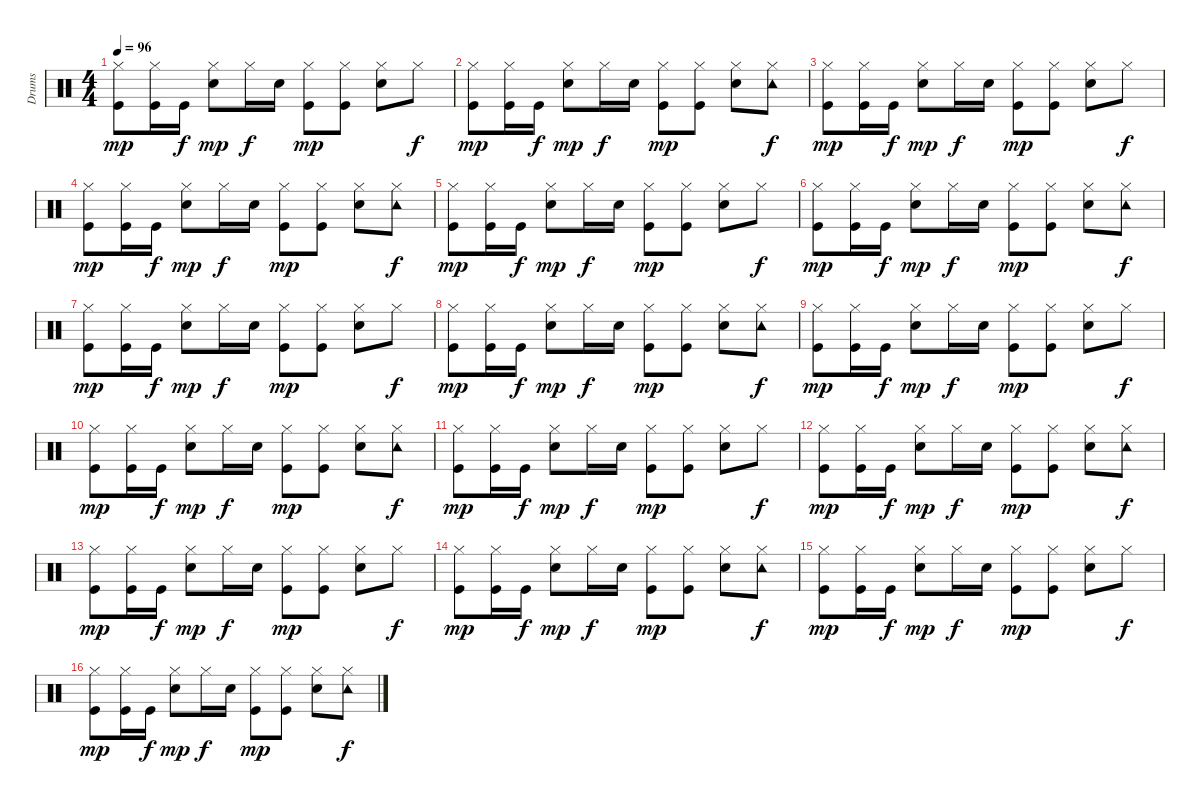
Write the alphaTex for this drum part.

\track ("Drums" "Drums") {instrument percussion}
\staff {score}
\articulation defaults
\ts (4 4)
\tempo 96
\clef neutral
\ks c
("Hi-Hat (closed)" "Kick (hit)").8{dy mp} ("Hi-Hat (closed)" "Kick (hit)").16 "Kick (hit)".16{dy f} ("Hi-Hat (closed)" "Electric Snare (hit)").8{dy mp} "Hi-Hat (closed)".16{dy f} "Electric Snare (hit)".16 ("Hi-Hat (closed)" "Kick (hit)").8{dy mp} ("Hi-Hat (closed)" "Kick (hit)").8 ("Hi-Hat (closed)" "Electric Snare (hit)").8 "Hi-Hat (closed)".8{dy f} |
("Hi-Hat (closed)" "Kick (hit)").8{dy mp} ("Hi-Hat (closed)" "Kick (hit)").16 "Kick (hit)".16{dy f} ("Hi-Hat (closed)" "Electric Snare (hit)").8{dy mp} "Hi-Hat (closed)".16{dy f} "Electric Snare (hit)".16 ("Hi-Hat (closed)" "Kick (hit)").8{dy mp} ("Hi-Hat (closed)" "Kick (hit)").8 ("Hi-Hat (closed)" "Electric Snare (hit)").8 ("Tambourine (hit)" "Hi-Hat (closed)").8{dy f} |
("Hi-Hat (closed)" "Kick (hit)").8{dy mp} ("Hi-Hat (closed)" "Kick (hit)").16 "Kick (hit)".16{dy f} ("Hi-Hat (closed)" "Electric Snare (hit)").8{dy mp} "Hi-Hat (closed)".16{dy f} "Electric Snare (hit)".16 ("Hi-Hat (closed)" "Kick (hit)").8{dy mp} ("Hi-Hat (closed)" "Kick (hit)").8 ("Hi-Hat (closed)" "Electric Snare (hit)").8 "Hi-Hat (closed)".8{dy f} |
("Hi-Hat (closed)" "Kick (hit)").8{dy mp} ("Hi-Hat (closed)" "Kick (hit)").16 "Kick (hit)".16{dy f} ("Hi-Hat (closed)" "Electric Snare (hit)").8{dy mp} "Hi-Hat (closed)".16{dy f} "Electric Snare (hit)".16 ("Hi-Hat (closed)" "Kick (hit)").8{dy mp} ("Hi-Hat (closed)" "Kick (hit)").8 ("Hi-Hat (closed)" "Electric Snare (hit)").8 ("Tambourine (hit)" "Hi-Hat (closed)").8{dy f} |
("Hi-Hat (closed)" "Kick (hit)").8{dy mp} ("Hi-Hat (closed)" "Kick (hit)").16 "Kick (hit)".16{dy f} ("Hi-Hat (closed)" "Electric Snare (hit)").8{dy mp} "Hi-Hat (closed)".16{dy f} "Electric Snare (hit)".16 ("Hi-Hat (closed)" "Kick (hit)").8{dy mp} ("Hi-Hat (closed)" "Kick (hit)").8 ("Hi-Hat (closed)" "Electric Snare (hit)").8 "Hi-Hat (closed)".8{dy f} |
("Hi-Hat (closed)" "Kick (hit)").8{dy mp} ("Hi-Hat (closed)" "Kick (hit)").16 "Kick (hit)".16{dy f} ("Hi-Hat (closed)" "Electric Snare (hit)").8{dy mp} "Hi-Hat (closed)".16{dy f} "Electric Snare (hit)".16 ("Hi-Hat (closed)" "Kick (hit)").8{dy mp} ("Hi-Hat (closed)" "Kick (hit)").8 ("Hi-Hat (closed)" "Electric Snare (hit)").8 ("Tambourine (hit)" "Hi-Hat (closed)").8{dy f} |
("Hi-Hat (closed)" "Kick (hit)").8{dy mp} ("Hi-Hat (closed)" "Kick (hit)").16 "Kick (hit)".16{dy f} ("Hi-Hat (closed)" "Electric Snare (hit)").8{dy mp} "Hi-Hat (closed)".16{dy f} "Electric Snare (hit)".16 ("Hi-Hat (closed)" "Kick (hit)").8{dy mp} ("Hi-Hat (closed)" "Kick (hit)").8 ("Hi-Hat (closed)" "Electric Snare (hit)").8 "Hi-Hat (closed)".8{dy f} |
("Hi-Hat (closed)" "Kick (hit)").8{dy mp} ("Hi-Hat (closed)" "Kick (hit)").16 "Kick (hit)".16{dy f} ("Hi-Hat (closed)" "Electric Snare (hit)").8{dy mp} "Hi-Hat (closed)".16{dy f} "Electric Snare (hit)".16 ("Hi-Hat (closed)" "Kick (hit)").8{dy mp} ("Hi-Hat (closed)" "Kick (hit)").8 ("Hi-Hat (closed)" "Electric Snare (hit)").8 ("Tambourine (hit)" "Hi-Hat (closed)").8{dy f} |
("Hi-Hat (closed)" "Kick (hit)").8{dy mp} ("Hi-Hat (closed)" "Kick (hit)").16 "Kick (hit)".16{dy f} ("Hi-Hat (closed)" "Electric Snare (hit)").8{dy mp} "Hi-Hat (closed)".16{dy f} "Electric Snare (hit)".16 ("Hi-Hat (closed)" "Kick (hit)").8{dy mp} ("Hi-Hat (closed)" "Kick (hit)").8 ("Hi-Hat (closed)" "Electric Snare (hit)").8 "Hi-Hat (closed)".8{dy f} |
("Hi-Hat (closed)" "Kick (hit)").8{dy mp} ("Hi-Hat (closed)" "Kick (hit)").16 "Kick (hit)".16{dy f} ("Hi-Hat (closed)" "Electric Snare (hit)").8{dy mp} "Hi-Hat (closed)".16{dy f} "Electric Snare (hit)".16 ("Hi-Hat (closed)" "Kick (hit)").8{dy mp} ("Hi-Hat (closed)" "Kick (hit)").8 ("Hi-Hat (closed)" "Electric Snare (hit)").8 ("Tambourine (hit)" "Hi-Hat (closed)").8{dy f} |
("Hi-Hat (closed)" "Kick (hit)").8{dy mp} ("Hi-Hat (closed)" "Kick (hit)").16 "Kick (hit)".16{dy f} ("Hi-Hat (closed)" "Electric Snare (hit)").8{dy mp} "Hi-Hat (closed)".16{dy f} "Electric Snare (hit)".16 ("Hi-Hat (closed)" "Kick (hit)").8{dy mp} ("Hi-Hat (closed)" "Kick (hit)").8 ("Hi-Hat (closed)" "Electric Snare (hit)").8 "Hi-Hat (closed)".8{dy f} |
("Hi-Hat (closed)" "Kick (hit)").8{dy mp} ("Hi-Hat (closed)" "Kick (hit)").16 "Kick (hit)".16{dy f} ("Hi-Hat (closed)" "Electric Snare (hit)").8{dy mp} "Hi-Hat (closed)".16{dy f} "Electric Snare (hit)".16 ("Hi-Hat (closed)" "Kick (hit)").8{dy mp} ("Hi-Hat (closed)" "Kick (hit)").8 ("Hi-Hat (closed)" "Electric Snare (hit)").8 ("Tambourine (hit)" "Hi-Hat (closed)").8{dy f} |
("Hi-Hat (closed)" "Kick (hit)").8{dy mp} ("Hi-Hat (closed)" "Kick (hit)").16 "Kick (hit)".16{dy f} ("Hi-Hat (closed)" "Electric Snare (hit)").8{dy mp} "Hi-Hat (closed)".16{dy f} "Electric Snare (hit)".16 ("Hi-Hat (closed)" "Kick (hit)").8{dy mp} ("Hi-Hat (closed)" "Kick (hit)").8 ("Hi-Hat (closed)" "Electric Snare (hit)").8 "Hi-Hat (closed)".8{dy f} |
("Hi-Hat (closed)" "Kick (hit)").8{dy mp} ("Hi-Hat (closed)" "Kick (hit)").16 "Kick (hit)".16{dy f} ("Hi-Hat (closed)" "Electric Snare (hit)").8{dy mp} "Hi-Hat (closed)".16{dy f} "Electric Snare (hit)".16 ("Hi-Hat (closed)" "Kick (hit)").8{dy mp} ("Hi-Hat (closed)" "Kick (hit)").8 ("Hi-Hat (closed)" "Electric Snare (hit)").8 ("Tambourine (hit)" "Hi-Hat (closed)").8{dy f} |
("Hi-Hat (closed)" "Kick (hit)").8{dy mp} ("Hi-Hat (closed)" "Kick (hit)").16 "Kick (hit)".16{dy f} ("Hi-Hat (closed)" "Electric Snare (hit)").8{dy mp} "Hi-Hat (closed)".16{dy f} "Electric Snare (hit)".16 ("Hi-Hat (closed)" "Kick (hit)").8{dy mp} ("Hi-Hat (closed)" "Kick (hit)").8 ("Hi-Hat (closed)" "Electric Snare (hit)").8 "Hi-Hat (closed)".8{dy f} |
("Hi-Hat (closed)" "Kick (hit)").8{dy mp} ("Hi-Hat (closed)" "Kick (hit)").16 "Kick (hit)".16{dy f} ("Hi-Hat (closed)" "Electric Snare (hit)").8{dy mp} "Hi-Hat (closed)".16{dy f} "Electric Snare (hit)".16 ("Hi-Hat (closed)" "Kick (hit)").8{dy mp} ("Hi-Hat (closed)" "Kick (hit)").8 ("Hi-Hat (closed)" "Electric Snare (hit)").8 ("Tambourine (hit)" "Hi-Hat (closed)").8{dy f}
